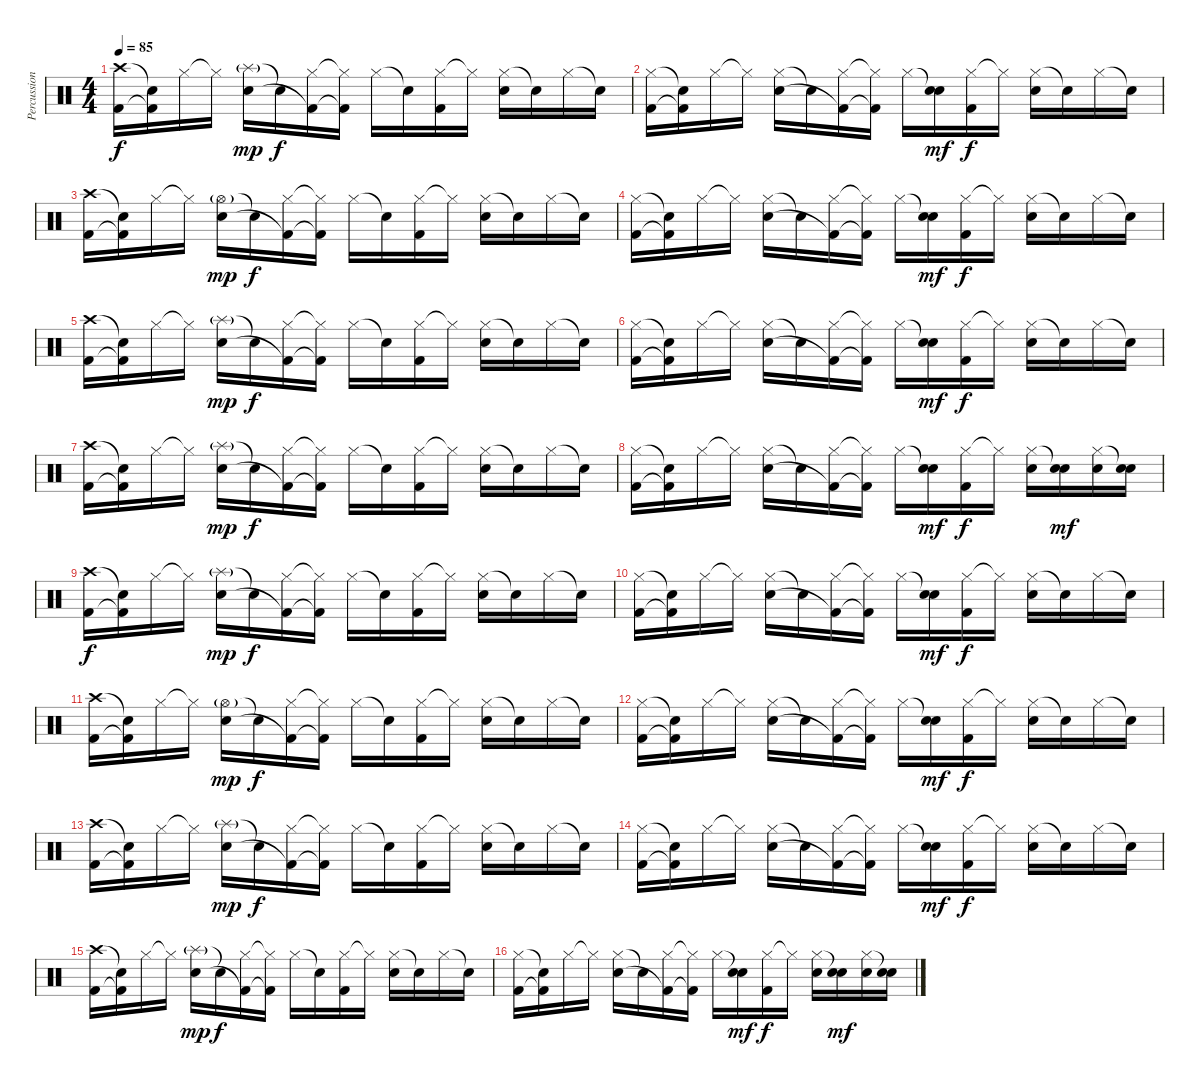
\track ("Percussion" "Percussion") {instrument percussion}
\staff {score}
\articulation defaults
\ts (4 4)
\tempo 85
\clef neutral
\ks c
("Crash high (hit)" "Kick (hit) 2").16{dy f} ("Snare (hit)"{t} "Kick (hit) 2"{t}).16 "Hi-Hat (closed)".16 "Hi-Hat (closed)"{t}.16 ("Splash (hit)"{g} "Snare (hit) 2").16{dy mp} "Snare (hit)"{t}.16{dy f} ("Hi-Hat (closed)" "Kick (hit) 2"{t}).16 ("Hi-Hat (closed)"{t} "Kick (hit) 2"{t}).16 "Hi-Hat (closed)".16 "Snare (hit)"{t}.16 ("Hi-Hat (closed)" "Kick (hit) 2").16 "Hi-Hat (closed)"{t}.16 ("Hi-Hat (closed)" "Snare (hit) 2").16 "Snare (hit)"{t}.16 "Hi-Hat (closed)".16 "Snare (hit)"{t}.16 |
("Hi-Hat (closed)" "Kick (hit) 2").16 ("Snare (hit)"{t} "Kick (hit) 2"{t}).16 "Hi-Hat (closed)".16 "Hi-Hat (closed)"{t}.16 ("Hi-Hat (closed)" "Snare (hit) 2").16 "Snare (hit)"{t}.16 ("Hi-Hat (closed)" "Kick (hit) 2"{t}).16 ("Hi-Hat (closed)"{t} "Kick (hit) 2"{t}).16 "Hi-Hat (closed)".16 ("Snare (hit)"{t} "Snare (hit) 2").16{dy mf} ("Hi-Hat (closed)" "Kick (hit) 2").16{dy f} "Hi-Hat (closed)"{t}.16 ("Hi-Hat (closed)" "Snare (hit) 2").16 "Snare (hit)"{t}.16 "Hi-Hat (closed)".16 "Snare (hit)"{t}.16 |
("Crash high (hit)" "Kick (hit) 2").16 ("Snare (hit)"{t} "Kick (hit) 2"{t}).16 "Hi-Hat (closed)".16 "Hi-Hat (closed)"{t}.16 ("Hi-Hat (open)"{g} "Snare (hit) 2").16{dy mp} "Snare (hit)"{t}.16{dy f} ("Hi-Hat (closed)" "Kick (hit) 2"{t}).16 ("Hi-Hat (closed)"{t} "Kick (hit) 2"{t}).16 "Hi-Hat (closed)".16 "Snare (hit)"{t}.16 ("Hi-Hat (closed)" "Kick (hit) 2").16 "Hi-Hat (closed)"{t}.16 ("Hi-Hat (closed)" "Snare (hit) 2").16 "Snare (hit)"{t}.16 "Hi-Hat (closed)".16 "Snare (hit)"{t}.16 |
("Hi-Hat (closed)" "Kick (hit) 2").16 ("Snare (hit)"{t} "Kick (hit) 2"{t}).16 "Hi-Hat (closed)".16 "Hi-Hat (closed)"{t}.16 ("Hi-Hat (closed)" "Snare (hit) 2").16 "Snare (hit)"{t}.16 ("Hi-Hat (closed)" "Kick (hit) 2"{t}).16 ("Hi-Hat (closed)"{t} "Kick (hit) 2"{t}).16 "Hi-Hat (closed)".16 ("Snare (hit)"{t} "Snare (hit) 2").16{dy mf} ("Hi-Hat (closed)" "Kick (hit) 2").16{dy f} "Hi-Hat (closed)"{t}.16 ("Hi-Hat (closed)" "Snare (hit) 2").16 "Snare (hit)"{t}.16 "Hi-Hat (closed)".16 "Snare (hit)"{t}.16 |
("Crash high (hit)" "Kick (hit) 2").16 ("Snare (hit)"{t} "Kick (hit) 2"{t}).16 "Hi-Hat (closed)".16 "Hi-Hat (closed)"{t}.16 ("Splash (hit)"{g} "Snare (hit) 2").16{dy mp} "Snare (hit)"{t}.16{dy f} ("Hi-Hat (closed)" "Kick (hit) 2"{t}).16 ("Hi-Hat (closed)"{t} "Kick (hit) 2"{t}).16 "Hi-Hat (closed)".16 "Snare (hit)"{t}.16 ("Hi-Hat (closed)" "Kick (hit) 2").16 "Hi-Hat (closed)"{t}.16 ("Hi-Hat (closed)" "Snare (hit) 2").16 "Snare (hit)"{t}.16 "Hi-Hat (closed)".16 "Snare (hit)"{t}.16 |
("Hi-Hat (closed)" "Kick (hit) 2").16 ("Snare (hit)"{t} "Kick (hit) 2"{t}).16 "Hi-Hat (closed)".16 "Hi-Hat (closed)"{t}.16 ("Hi-Hat (closed)" "Snare (hit) 2").16 "Snare (hit)"{t}.16 ("Hi-Hat (closed)" "Kick (hit) 2"{t}).16 ("Hi-Hat (closed)"{t} "Kick (hit) 2"{t}).16 "Hi-Hat (closed)".16 ("Snare (hit)"{t} "Snare (hit) 2").16{dy mf} ("Hi-Hat (closed)" "Kick (hit) 2").16{dy f} "Hi-Hat (closed)"{t}.16 ("Hi-Hat (closed)" "Snare (hit) 2").16 "Snare (hit)"{t}.16 "Hi-Hat (closed)".16 "Snare (hit)"{t}.16 |
("Crash high (hit)" "Kick (hit) 2").16 ("Snare (hit)"{t} "Kick (hit) 2"{t}).16 "Hi-Hat (closed)".16 "Hi-Hat (closed)"{t}.16 ("Splash (hit)"{g} "Snare (hit) 2").16{dy mp} "Snare (hit)"{t}.16{dy f} ("Hi-Hat (closed)" "Kick (hit) 2"{t}).16 ("Hi-Hat (closed)"{t} "Kick (hit) 2"{t}).16 "Hi-Hat (closed)".16 "Snare (hit)"{t}.16 ("Hi-Hat (closed)" "Kick (hit) 2").16 "Hi-Hat (closed)"{t}.16 ("Hi-Hat (closed)" "Snare (hit) 2").16 "Snare (hit)"{t}.16 "Hi-Hat (closed)".16 "Snare (hit)"{t}.16 |
("Hi-Hat (closed)" "Kick (hit) 2").16 ("Snare (hit)"{t} "Kick (hit) 2"{t}).16 "Hi-Hat (closed)".16 "Hi-Hat (closed)"{t}.16 ("Hi-Hat (closed)" "Snare (hit) 2").16 "Snare (hit)"{t}.16 ("Hi-Hat (closed)" "Kick (hit) 2"{t}).16 ("Hi-Hat (closed)"{t} "Kick (hit) 2"{t}).16 "Hi-Hat (closed)".16 ("Snare (hit)"{t} "Snare (hit) 2").16{dy mf} ("Hi-Hat (closed)" "Kick (hit) 2").16{dy f} "Hi-Hat (closed)"{t}.16 ("Hi-Hat (closed)" "Snare (hit) 2").16 ("Snare (hit)"{t} "Snare (hit) 2").16{dy mf} ("Hi-Hat (closed)" "Snare (hit) 2").16 ("Snare (hit)"{t} "Snare (hit) 2").16 |
("Crash high (hit)" "Kick (hit) 2").16{dy f} ("Snare (hit)"{t} "Kick (hit) 2"{t}).16 "Hi-Hat (closed)".16 "Hi-Hat (closed)"{t}.16 ("Splash (hit)"{g} "Snare (hit) 2").16{dy mp} "Snare (hit)"{t}.16{dy f} ("Hi-Hat (closed)" "Kick (hit) 2"{t}).16 ("Hi-Hat (closed)"{t} "Kick (hit) 2"{t}).16 "Hi-Hat (closed)".16 "Snare (hit)"{t}.16 ("Hi-Hat (closed)" "Kick (hit) 2").16 "Hi-Hat (closed)"{t}.16 ("Hi-Hat (closed)" "Snare (hit) 2").16 "Snare (hit)"{t}.16 "Hi-Hat (closed)".16 "Snare (hit)"{t}.16 |
("Hi-Hat (closed)" "Kick (hit) 2").16 ("Snare (hit)"{t} "Kick (hit) 2"{t}).16 "Hi-Hat (closed)".16 "Hi-Hat (closed)"{t}.16 ("Hi-Hat (closed)" "Snare (hit) 2").16 "Snare (hit)"{t}.16 ("Hi-Hat (closed)" "Kick (hit) 2"{t}).16 ("Hi-Hat (closed)"{t} "Kick (hit) 2"{t}).16 "Hi-Hat (closed)".16 ("Snare (hit)"{t} "Snare (hit) 2").16{dy mf} ("Hi-Hat (closed)" "Kick (hit) 2").16{dy f} "Hi-Hat (closed)"{t}.16 ("Hi-Hat (closed)" "Snare (hit) 2").16 "Snare (hit)"{t}.16 "Hi-Hat (closed)".16 "Snare (hit)"{t}.16 |
("Crash high (hit)" "Kick (hit) 2").16 ("Snare (hit)"{t} "Kick (hit) 2"{t}).16 "Hi-Hat (closed)".16 "Hi-Hat (closed)"{t}.16 ("Hi-Hat (open)"{g} "Snare (hit) 2").16{dy mp} "Snare (hit)"{t}.16{dy f} ("Hi-Hat (closed)" "Kick (hit) 2"{t}).16 ("Hi-Hat (closed)"{t} "Kick (hit) 2"{t}).16 "Hi-Hat (closed)".16 "Snare (hit)"{t}.16 ("Hi-Hat (closed)" "Kick (hit) 2").16 "Hi-Hat (closed)"{t}.16 ("Hi-Hat (closed)" "Snare (hit) 2").16 "Snare (hit)"{t}.16 "Hi-Hat (closed)".16 "Snare (hit)"{t}.16 |
("Hi-Hat (closed)" "Kick (hit) 2").16 ("Snare (hit)"{t} "Kick (hit) 2"{t}).16 "Hi-Hat (closed)".16 "Hi-Hat (closed)"{t}.16 ("Hi-Hat (closed)" "Snare (hit) 2").16 "Snare (hit)"{t}.16 ("Hi-Hat (closed)" "Kick (hit) 2"{t}).16 ("Hi-Hat (closed)"{t} "Kick (hit) 2"{t}).16 "Hi-Hat (closed)".16 ("Snare (hit)"{t} "Snare (hit) 2").16{dy mf} ("Hi-Hat (closed)" "Kick (hit) 2").16{dy f} "Hi-Hat (closed)"{t}.16 ("Hi-Hat (closed)" "Snare (hit) 2").16 "Snare (hit)"{t}.16 "Hi-Hat (closed)".16 "Snare (hit)"{t}.16 |
("Crash high (hit)" "Kick (hit) 2").16 ("Snare (hit)"{t} "Kick (hit) 2"{t}).16 "Hi-Hat (closed)".16 "Hi-Hat (closed)"{t}.16 ("Splash (hit)"{g} "Snare (hit) 2").16{dy mp} "Snare (hit)"{t}.16{dy f} ("Hi-Hat (closed)" "Kick (hit) 2"{t}).16 ("Hi-Hat (closed)"{t} "Kick (hit) 2"{t}).16 "Hi-Hat (closed)".16 "Snare (hit)"{t}.16 ("Hi-Hat (closed)" "Kick (hit) 2").16 "Hi-Hat (closed)"{t}.16 ("Hi-Hat (closed)" "Snare (hit) 2").16 "Snare (hit)"{t}.16 "Hi-Hat (closed)".16 "Snare (hit)"{t}.16 |
("Hi-Hat (closed)" "Kick (hit) 2").16 ("Snare (hit)"{t} "Kick (hit) 2"{t}).16 "Hi-Hat (closed)".16 "Hi-Hat (closed)"{t}.16 ("Hi-Hat (closed)" "Snare (hit) 2").16 "Snare (hit)"{t}.16 ("Hi-Hat (closed)" "Kick (hit) 2"{t}).16 ("Hi-Hat (closed)"{t} "Kick (hit) 2"{t}).16 "Hi-Hat (closed)".16 ("Snare (hit)"{t} "Snare (hit) 2").16{dy mf} ("Hi-Hat (closed)" "Kick (hit) 2").16{dy f} "Hi-Hat (closed)"{t}.16 ("Hi-Hat (closed)" "Snare (hit) 2").16 "Snare (hit)"{t}.16 "Hi-Hat (closed)".16 "Snare (hit)"{t}.16 |
("Crash high (hit)" "Kick (hit) 2").16 ("Snare (hit)"{t} "Kick (hit) 2"{t}).16 "Hi-Hat (closed)".16 "Hi-Hat (closed)"{t}.16 ("Splash (hit)"{g} "Snare (hit) 2").16{dy mp} "Snare (hit)"{t}.16{dy f} ("Hi-Hat (closed)" "Kick (hit) 2"{t}).16 ("Hi-Hat (closed)"{t} "Kick (hit) 2"{t}).16 "Hi-Hat (closed)".16 "Snare (hit)"{t}.16 ("Hi-Hat (closed)" "Kick (hit) 2").16 "Hi-Hat (closed)"{t}.16 ("Hi-Hat (closed)" "Snare (hit) 2").16 "Snare (hit)"{t}.16 "Hi-Hat (closed)".16 "Snare (hit)"{t}.16 |
("Hi-Hat (closed)" "Kick (hit) 2").16 ("Snare (hit)"{t} "Kick (hit) 2"{t}).16 "Hi-Hat (closed)".16 "Hi-Hat (closed)"{t}.16 ("Hi-Hat (closed)" "Snare (hit) 2").16 "Snare (hit)"{t}.16 ("Hi-Hat (closed)" "Kick (hit) 2"{t}).16 ("Hi-Hat (closed)"{t} "Kick (hit) 2"{t}).16 "Hi-Hat (closed)".16 ("Snare (hit)"{t} "Snare (hit) 2").16{dy mf} ("Hi-Hat (closed)" "Kick (hit) 2").16{dy f} "Hi-Hat (closed)"{t}.16 ("Hi-Hat (closed)" "Snare (hit) 2").16 ("Snare (hit)"{t} "Snare (hit) 2").16{dy mf} ("Hi-Hat (closed)" "Snare (hit) 2").16 ("Snare (hit)"{t} "Snare (hit) 2").16
